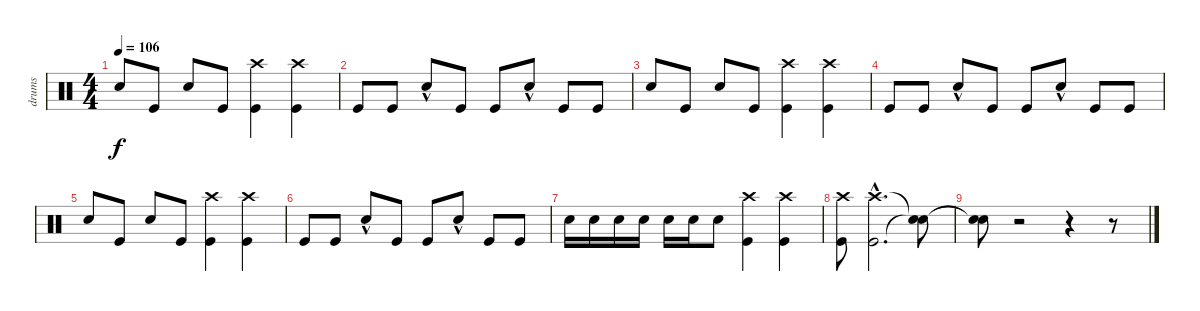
\track ("drums" "drums") {instrument percussion}
\staff {score}
\articulation defaults
\ts (4 4)
\tempo 106
\clef neutral
\ks c "Snare (hit) 2".8{dy f} "Kick (hit)".8 "Snare (hit) 2".8 "Kick (hit)".8
("Kick (hit)" "Crash high (hit)").4 ("Kick (hit)" "Crash high (hit)").4 |
"Kick (hit)".8 "Kick (hit)".8 "Snare (hit) 2"{hac}.8 "Kick (hit)".8 "Kick (hit)".8 "Snare (hit) 2"{hac}.8 "Kick (hit)".8 "Kick (hit)".8 |
"Snare (hit) 2".8 "Kick (hit)".8 "Snare (hit) 2".8 "Kick (hit)".8 ("Kick (hit)" "Crash high (hit)").4 ("Kick (hit)" "Crash high (hit)").4 |
"Kick (hit)".8 "Kick (hit)".8 "Snare (hit) 2"{hac}.8 "Kick (hit)".8 "Kick (hit)".8 "Snare (hit) 2"{hac}.8 "Kick (hit)".8 "Kick (hit)".8 |
"Snare (hit) 2".8 "Kick (hit)".8 "Snare (hit) 2".8 "Kick (hit)".8 ("Kick (hit)" "Crash high (hit)").4 ("Kick (hit)" "Crash high (hit)").4 |
"Kick (hit)".8 "Kick (hit)".8 "Snare (hit) 2"{hac}.8 "Kick (hit)".8 "Kick (hit)".8 "Snare (hit) 2"{hac}.8 "Kick (hit)".8 "Kick (hit)".8 |
"Snare (hit) 2".16 "Snare (hit) 2".16 "Snare (hit) 2".16 "Snare (hit) 2".16 "Snare (hit) 2".16 "Snare (hit) 2".16 "Snare (hit) 2".8 ("Kick (hit)" "Crash high (hit)").4 ("Kick (hit)" "Crash high (hit)").4 |
("Kick (hit)" "Crash high (hit)").8 ("Kick (hit)"{hac} "Crash high (hit)"{hac}).2{d} ("Snare (hit)"{t} "Snare (hit)"{t}).8 |
("Snare (hit)"{t} "Snare (hit)"{t}).8 r.2 r.4 r.8
